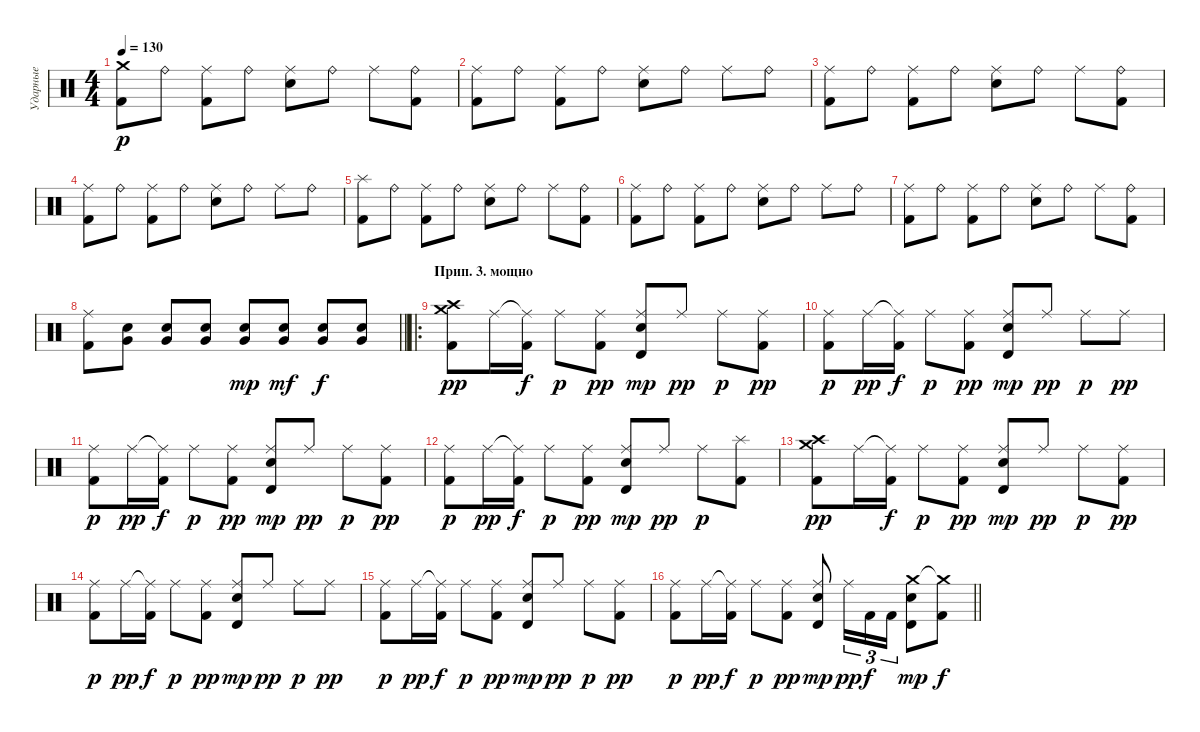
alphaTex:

\track ("Ударные" "Ударные") {instrument percussion}
\staff {score}
\articulation defaults
\ts (4 4)
\tempo 130
\clef neutral
\ks c
("Crash medium (hit)" "Kick (hit) 2").8{dy p} "Ride (bell)".8 ("Ride (middle)" "Kick (hit) 2").8 "Ride (bell)".8 ("Ride (middle)" "Snare (hit) 2").8 "Ride (bell)".8 "Ride (middle)".8 ("Ride (bell)" "Kick (hit) 2").8 |
("Ride (middle)" "Kick (hit) 2").8 "Ride (bell)".8 ("Ride (middle)" "Kick (hit) 2").8 "Ride (bell)".8 ("Ride (middle)" "Snare (hit) 2").8 "Ride (bell)".8 "Ride (middle)".8 "Ride (bell)".8 |
("Ride (middle)" "Kick (hit) 2").8 "Ride (bell)".8 ("Ride (middle)" "Kick (hit) 2").8 "Ride (bell)".8 ("Ride (middle)" "Snare (hit) 2").8 "Ride (bell)".8 "Ride (middle)".8 ("Ride (bell)" "Kick (hit) 2").8 |
("Ride (middle)" "Kick (hit) 2").8 "Ride (bell)".8 ("Ride (middle)" "Kick (hit) 2").8 "Ride (bell)".8 ("Ride (middle)" "Snare (hit) 2").8 "Ride (bell)".8 "Ride (middle)".8 "Ride (bell)".8 |
("Splash (hit)" "Kick (hit) 2").8 "Ride (bell)".8 ("Ride (middle)" "Kick (hit) 2").8 "Ride (bell)".8 ("Ride (middle)" "Snare (hit) 2").8 "Ride (bell)".8 "Ride (middle)".8 ("Ride (bell)" "Kick (hit) 2").8 |
("Ride (middle)" "Kick (hit) 2").8 "Ride (bell)".8 ("Ride (middle)" "Kick (hit) 2").8 "Ride (bell)".8 ("Ride (middle)" "Snare (hit) 2").8 "Ride (bell)".8 "Ride (middle)".8 "Ride (bell)".8 |
("Ride (middle)" "Kick (hit) 2").8 "Ride (bell)".8 ("Ride (middle)" "Kick (hit) 2").8 "Ride (bell)".8 ("Ride (middle)" "Snare (hit) 2").8 "Ride (bell)".8 "Ride (middle)".8 ("Ride (bell)" "Kick (hit) 2").8 |
\barLineRight lightlight
("Ride (middle)" "Kick (hit) 2").8 ("Snare (hit) 2" "Very Low Tom (hit)").8 ("Snare (hit) 2" "Very Low Tom (hit)").8 ("Snare (hit) 2" "Very Low Tom (hit)").8 ("Snare (hit) 2" "Very Low Tom (hit)").8{dy mp} ("Snare (hit) 2" "Very Low Tom (hit)").8{dy mf} ("Snare (hit) 2" "Very Low Tom (hit)").8{dy f} ("Snare (hit) 2" "Very Low Tom (hit)").8 |
\ro
\section ("" "Прип. 3. мощно")
("Crash medium (hit)" "Crash high (hit)" "Kick (hit) 2").8{dy pp} "Ride (middle)".16 ("Ride (middle)"{t} "Kick (hit) 2").16{dy f} "Ride (middle)".8{dy p} ("Ride (middle)" "Kick (hit) 2").8{dy pp} ("Ride (middle)" "Snare (hit) 2" "Timbale high (hit)").8{dy mp} "Ride (middle)".8{dy pp} "Ride (middle)".8{dy p} ("Ride (middle)" "Kick (hit) 2").8{dy pp} |
("Ride (middle)" "Kick (hit) 2").8{dy p} "Ride (middle)".16{dy pp} ("Ride (middle)"{t} "Kick (hit) 2").16{dy f} "Ride (middle)".8{dy p} ("Ride (middle)" "Kick (hit) 2").8{dy pp} ("Ride (middle)" "Snare (hit) 2" "Timbale high (hit)").8{dy mp} "Ride (middle)".8{dy pp} "Ride (middle)".8{dy p} "Ride (middle)".8{dy pp} |
("Ride (middle)" "Kick (hit) 2").8{dy p} "Ride (middle)".16{dy pp} ("Ride (middle)"{t} "Kick (hit) 2").16{dy f} "Ride (middle)".8{dy p} ("Ride (middle)" "Kick (hit) 2").8{dy pp} ("Ride (middle)" "Snare (hit) 2" "Timbale high (hit)").8{dy mp} "Ride (middle)".8{dy pp} "Ride (middle)".8{dy p} ("Ride (middle)" "Kick (hit) 2").8{dy pp} |
("Ride (middle)" "Kick (hit) 2").8{dy p} "Ride (middle)".16{dy pp} ("Ride (middle)"{t} "Kick (hit) 2").16{dy f} "Ride (middle)".8{dy p} ("Ride (middle)" "Kick (hit) 2").8{dy pp} ("Ride (middle)" "Snare (hit) 2" "Timbale high (hit)").8{dy mp} "Ride (middle)".8{dy pp} "Ride (middle)".8{dy p} ("Splash (hit)" "Kick (hit) 2").8 |
("Crash medium (hit)" "Crash high (hit)" "Kick (hit) 2").8{dy pp} "Ride (middle)".16 ("Ride (middle)"{t} "Kick (hit) 2").16{dy f} "Ride (middle)".8{dy p} ("Ride (middle)" "Kick (hit) 2").8{dy pp} ("Ride (middle)" "Snare (hit) 2" "Timbale high (hit)").8{dy mp} "Ride (middle)".8{dy pp} "Ride (middle)".8{dy p} ("Ride (middle)" "Kick (hit) 2").8{dy pp} |
("Ride (middle)" "Kick (hit) 2").8{dy p} "Ride (middle)".16{dy pp} ("Ride (middle)"{t} "Kick (hit) 2").16{dy f} "Ride (middle)".8{dy p} ("Ride (middle)" "Kick (hit) 2").8{dy pp} ("Ride (middle)" "Snare (hit) 2" "Timbale high (hit)").8{dy mp} "Ride (middle)".8{dy pp} "Ride (middle)".8{dy p} "Ride (middle)".8{dy pp} |
("Ride (middle)" "Kick (hit) 2").8{dy p} "Ride (middle)".16{dy pp} ("Ride (middle)"{t} "Kick (hit) 2").16{dy f} "Ride (middle)".8{dy p} ("Ride (middle)" "Kick (hit) 2").8{dy pp} ("Ride (middle)" "Snare (hit) 2" "Timbale high (hit)").8{dy mp} "Ride (middle)".8{dy pp} "Ride (middle)".8{dy p} ("Ride (middle)" "Kick (hit) 2").8{dy pp} |
\barLineRight lightlight
("Ride (middle)" "Kick (hit) 2").8{dy p} "Ride (middle)".16{dy pp} ("Ride (middle)"{t} "Kick (hit) 2").16{dy f} "Ride (middle)".8{dy p} ("Ride (middle)" "Kick (hit) 2").8{dy pp} ("Ride (middle)" "Snare (hit) 2" "Timbale high (hit)").8{dy mp} "Ride (middle)".16{tu (3 2) dy pp} "Kick (hit) 2".16{tu (3 2) dy f} "Kick (hit) 2".16{tu (3 2)} ("Crash medium (hit)" "Snare (hit) 2" "Timbale high (hit)").8{dy mp} ("Crash medium (hit)"{t} "Kick (hit) 2").8{dy f}
